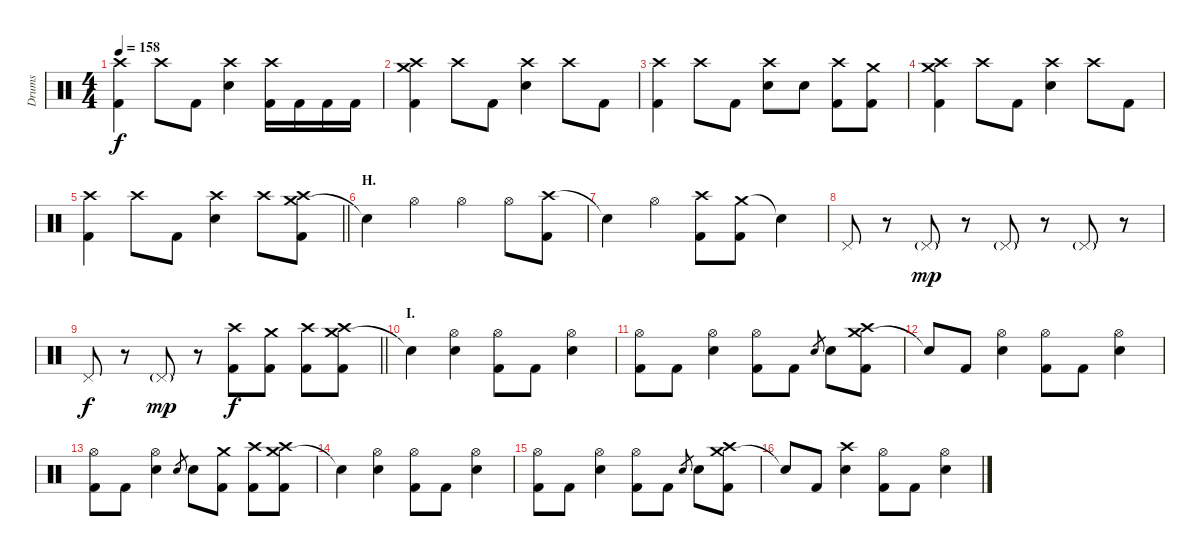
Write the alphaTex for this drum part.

\track ("Drums" "Drums") {instrument percussion}
\staff {score}
\articulation defaults
\ts (4 4)
\tempo 158
\clef neutral
\ks c
("Crash high (hit)" "Kick (hit) 2").4{dy f} "Crash high (hit)".8 "Kick (hit) 2".8 ("Crash high (hit)" "Electric Snare (hit)").4 ("Crash high (hit)" "Kick (hit) 2").16 "Kick (hit) 2".16 "Kick (hit) 2".16 "Kick (hit) 2".16 |
("Crash medium (hit)" "Crash high (hit)" "Kick (hit) 2").4 "Crash high (hit)".8 "Kick (hit) 2".8 ("Crash high (hit)" "Electric Snare (hit)").4 "Crash high (hit)".8 "Kick (hit) 2".8 |
("Crash high (hit)" "Kick (hit) 2").4 "Crash high (hit)".8 "Kick (hit) 2".8 ("Crash high (hit)" "Electric Snare (hit)").8 "Electric Snare (hit)".8 ("Crash high (hit)" "Kick (hit) 2").8 ("Crash medium (hit)" "Kick (hit) 2").8 |
("Crash medium (hit)" "Crash high (hit)" "Kick (hit) 2").4 "Crash high (hit)".8 "Kick (hit) 2".8 ("Crash high (hit)" "Electric Snare (hit)").4 "Crash high (hit)".8 "Kick (hit) 2".8 |
\barLineRight lightlight
("Crash high (hit)" "Kick (hit) 2").4 "Crash high (hit)".8 "Kick (hit) 2".8 ("Crash high (hit)" "Electric Snare (hit)").4 "Crash high (hit)".8 ("Crash medium (hit)" "Crash high (hit)" "Kick (hit) 2").8 |
\section ("" "H.")
"Snare (hit)"{t}.4 "Hi-Hat (open)".4 "Hi-Hat (open)".4 "Hi-Hat (open)".8 ("Crash high (hit)" "Kick (hit) 2").8 |
"Snare (hit)"{t}.4 "Hi-Hat (open)".4 ("Crash high (hit)" "Kick (hit) 2").8 ("Crash medium (hit)" "Kick (hit) 2").8 "Snare (hit)"{t}.4 |
"Pedal Hi-Hat (hit)".8 r.8 "Pedal Hi-Hat (hit)"{g}.8{dy mp} r.8 "Pedal Hi-Hat (hit)"{g}.8 r.8 "Pedal Hi-Hat (hit)"{g}.8 r.8 |
\barLineRight lightlight "Pedal Hi-Hat (hit)".8{dy f}
r.8 "Pedal Hi-Hat (hit)"{g}.8{dy mp} r.8 ("Crash high (hit)" "Kick (hit) 2").8{dy f} ("Crash medium (hit)" "Kick (hit) 2").8 ("Crash high (hit)" "Kick (hit) 2").8 ("Crash medium (hit)" "Crash high (hit)" "Kick (hit) 2").8 |
\section ("" "I.")
"Snare (hit)"{t}.4 ("Hi-Hat (open)" "Electric Snare (hit)").4 ("Hi-Hat (open)" "Kick (hit) 2").8 "Kick (hit) 2".8 ("Hi-Hat (open)" "Electric Snare (hit)").4 |
("Hi-Hat (open)" "Kick (hit) 2").8 "Kick (hit) 2".8 ("Hi-Hat (open)" "Electric Snare (hit)").4 ("Hi-Hat (open)" "Kick (hit) 2").8 "Kick (hit) 2".8 "Electric Snare (hit)".8{gr} "Electric Snare (hit)".8 ("Crash medium (hit)" "Crash high (hit)" "Kick (hit) 2").8 |
"Snare (hit)"{t}.8 "Kick (hit) 2".8 ("Hi-Hat (open)" "Electric Snare (hit)").4 ("Hi-Hat (open)" "Kick (hit) 2").8 "Kick (hit) 2".8 ("Hi-Hat (open)" "Electric Snare (hit)").4 |
("Hi-Hat (open)" "Kick (hit) 2").8 "Kick (hit) 2".8 ("Hi-Hat (open)" "Electric Snare (hit)").4 "Electric Snare (hit)".8{gr} "Electric Snare (hit)".8 ("Crash medium (hit)" "Kick (hit) 2").8 ("Crash high (hit)" "Kick (hit) 2").8 ("Crash medium (hit)" "Crash high (hit)" "Kick (hit) 2").8 |
"Snare (hit)"{t}.4 ("Hi-Hat (open)" "Electric Snare (hit)").4 ("Hi-Hat (open)" "Kick (hit) 2").8 "Kick (hit) 2".8 ("Hi-Hat (open)" "Electric Snare (hit)").4 |
("Hi-Hat (open)" "Kick (hit) 2").8 "Kick (hit) 2".8 ("Hi-Hat (open)" "Electric Snare (hit)").4 ("Hi-Hat (open)" "Kick (hit) 2").8 "Kick (hit) 2".8 "Electric Snare (hit)".8{gr} "Electric Snare (hit)".8 ("Crash medium (hit)" "Crash high (hit)" "Kick (hit) 2").8 |
"Snare (hit)"{t}.8 "Kick (hit) 2".8 ("Crash high (hit)" "Electric Snare (hit)").4 ("Hi-Hat (open)" "Kick (hit) 2").8 "Kick (hit) 2".8 ("Hi-Hat (open)" "Electric Snare (hit)").4
